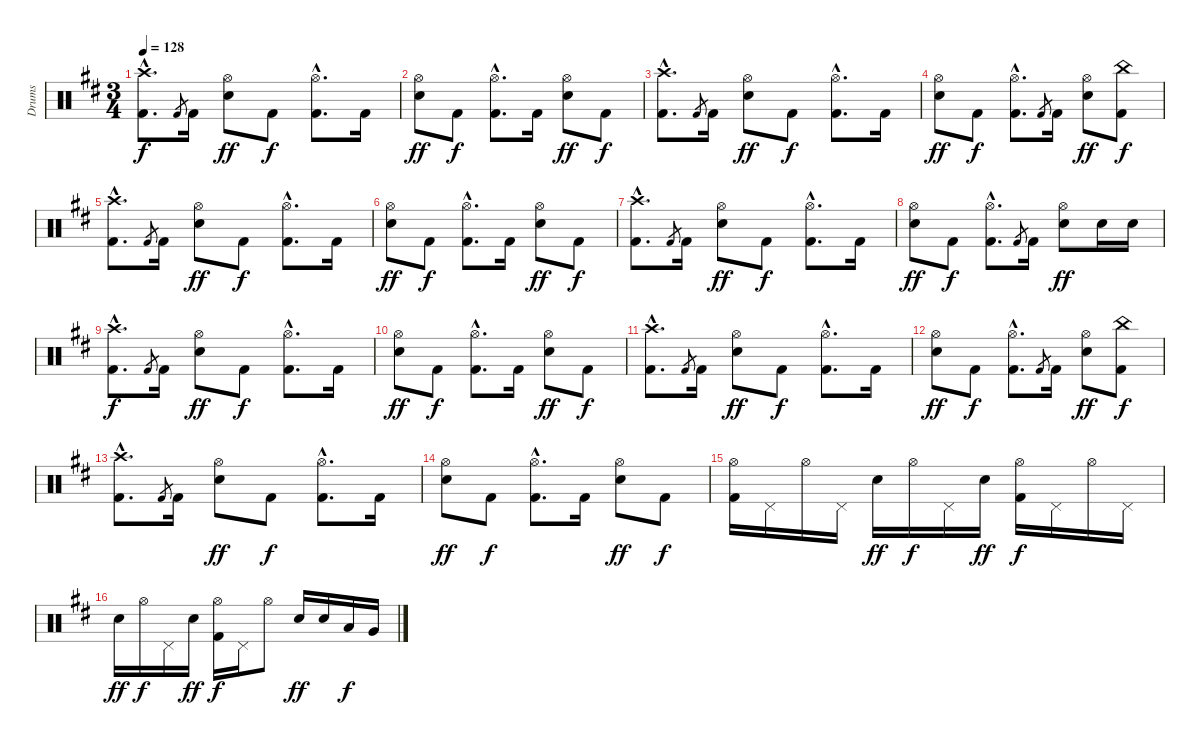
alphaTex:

\track ("Drums" "Drums") {instrument percussion}
\staff {score}
\articulation defaults
\ts (3 4)
\tempo 128
\clef neutral
\ks d
("Kick (hit) 2"{hac} "Crash high (hit)"{hac}).8{d dy f} "Kick (hit) 2".8{gr} "Kick (hit) 2".16 ("Electric Snare (hit)" "Hi-Hat (open)").8{dy ff} "Kick (hit) 2".8{dy f} ("Kick (hit) 2"{hac} "Hi-Hat (open)").8{d} "Kick (hit) 2".16 |
("Electric Snare (hit)" "Hi-Hat (open)").8{dy ff} "Kick (hit) 2".8{dy f} ("Kick (hit) 2"{hac} "Hi-Hat (open)"{hac}).8{d} "Kick (hit) 2".16 ("Electric Snare (hit)" "Hi-Hat (open)").8{dy ff} "Kick (hit) 2".8{dy f} |
("Kick (hit) 2"{hac} "Crash high (hit)"{hac}).8{d} "Kick (hit) 2".8{gr} "Kick (hit) 2".16 ("Electric Snare (hit)" "Hi-Hat (open)").8{dy ff} "Kick (hit) 2".8{dy f} ("Kick (hit) 2"{hac} "Hi-Hat (open)").8{d} "Kick (hit) 2".16 |
("Electric Snare (hit)" "Hi-Hat (open)").8{dy ff} "Kick (hit) 2".8{dy f} ("Kick (hit) 2"{hac} "Hi-Hat (open)"{hac}).8{d} "Kick (hit) 2".8{gr} "Kick (hit) 2".16 ("Electric Snare (hit)" "Hi-Hat (open)").8{dy ff} ("Kick (hit) 2" "China (hit)").8{dy f} |
("Kick (hit) 2"{hac} "Crash high (hit)"{hac}).8{d} "Kick (hit) 2".8{gr} "Kick (hit) 2".16 ("Electric Snare (hit)" "Hi-Hat (open)").8{dy ff} "Kick (hit) 2".8{dy f} ("Kick (hit) 2"{hac} "Hi-Hat (open)").8{d} "Kick (hit) 2".16 |
("Electric Snare (hit)" "Hi-Hat (open)").8{dy ff} "Kick (hit) 2".8{dy f} ("Kick (hit) 2"{hac} "Hi-Hat (open)"{hac}).8{d} "Kick (hit) 2".16 ("Electric Snare (hit)" "Hi-Hat (open)").8{dy ff} "Kick (hit) 2".8{dy f} |
("Kick (hit) 2"{hac} "Crash high (hit)"{hac}).8{d} "Kick (hit) 2".8{gr} "Kick (hit) 2".16 ("Electric Snare (hit)" "Hi-Hat (open)").8{dy ff} "Kick (hit) 2".8{dy f} ("Kick (hit) 2"{hac} "Hi-Hat (open)").8{d} "Kick (hit) 2".16 |
("Electric Snare (hit)" "Hi-Hat (open)").8{dy ff} "Kick (hit) 2".8{dy f} ("Kick (hit) 2"{hac} "Hi-Hat (open)"{hac}).8{d} "Kick (hit) 2".8{gr} "Kick (hit) 2".16 ("Electric Snare (hit)" "Hi-Hat (open)").8{dy ff} "Electric Snare (hit)".16 "Electric Snare (hit)".16 |
("Kick (hit) 2"{hac} "Crash high (hit)"{hac}).8{d dy f} "Kick (hit) 2".8{gr} "Kick (hit) 2".16 ("Electric Snare (hit)" "Hi-Hat (open)").8{dy ff} "Kick (hit) 2".8{dy f} ("Kick (hit) 2"{hac} "Hi-Hat (open)").8{d} "Kick (hit) 2".16 |
("Electric Snare (hit)" "Hi-Hat (open)").8{dy ff} "Kick (hit) 2".8{dy f} ("Kick (hit) 2"{hac} "Hi-Hat (open)"{hac}).8{d} "Kick (hit) 2".16 ("Electric Snare (hit)" "Hi-Hat (open)").8{dy ff} "Kick (hit) 2".8{dy f} |
("Kick (hit) 2"{hac} "Crash high (hit)"{hac}).8{d} "Kick (hit) 2".8{gr} "Kick (hit) 2".16 ("Electric Snare (hit)" "Hi-Hat (open)").8{dy ff} "Kick (hit) 2".8{dy f} ("Kick (hit) 2"{hac} "Hi-Hat (open)").8{d} "Kick (hit) 2".16 |
("Electric Snare (hit)" "Hi-Hat (open)").8{dy ff} "Kick (hit) 2".8{dy f} ("Kick (hit) 2"{hac} "Hi-Hat (open)"{hac}).8{d} "Kick (hit) 2".8{gr} "Kick (hit) 2".16 ("Electric Snare (hit)" "Hi-Hat (open)").8{dy ff} ("Kick (hit) 2" "China (hit)").8{dy f} |
("Kick (hit) 2"{hac} "Crash high (hit)"{hac}).8{d} "Kick (hit) 2".8{gr} "Kick (hit) 2".16 ("Electric Snare (hit)" "Hi-Hat (open)").8{dy ff} "Kick (hit) 2".8{dy f} ("Kick (hit) 2"{hac} "Hi-Hat (open)").8{d} "Kick (hit) 2".16 |
("Electric Snare (hit)" "Hi-Hat (open)").8{dy ff} "Kick (hit) 2".8{dy f} ("Kick (hit) 2"{hac} "Hi-Hat (open)"{hac}).8{d} "Kick (hit) 2".16 ("Electric Snare (hit)" "Hi-Hat (open)").8{dy ff} "Kick (hit) 2".8{dy f} |
("Kick (hit) 2" "Hi-Hat (open)").16 "Pedal Hi-Hat (hit)".16 "Hi-Hat (open)".16 "Pedal Hi-Hat (hit)".16 "Electric Snare (hit)".16{dy ff} "Hi-Hat (open)".16{dy f} "Pedal Hi-Hat (hit)".16 "Electric Snare (hit)".16{dy ff} ("Kick (hit) 2" "Hi-Hat (open)").16{dy f} "Pedal Hi-Hat (hit)".16 "Hi-Hat (open)".16 "Pedal Hi-Hat (hit)".16 |
"Electric Snare (hit)".16{dy ff} "Hi-Hat (open)".16{dy f} "Pedal Hi-Hat (hit)".16 "Electric Snare (hit)".16{dy ff} ("Kick (hit) 2" "Hi-Hat (open)").16{dy f} "Pedal Hi-Hat (hit)".16 "Hi-Hat (open)".8 "Electric Snare (hit)".16{dy ff} "Electric Snare (hit)".16 "Low Tom (hit)".16{dy f} "Very Low Tom (hit)".16
